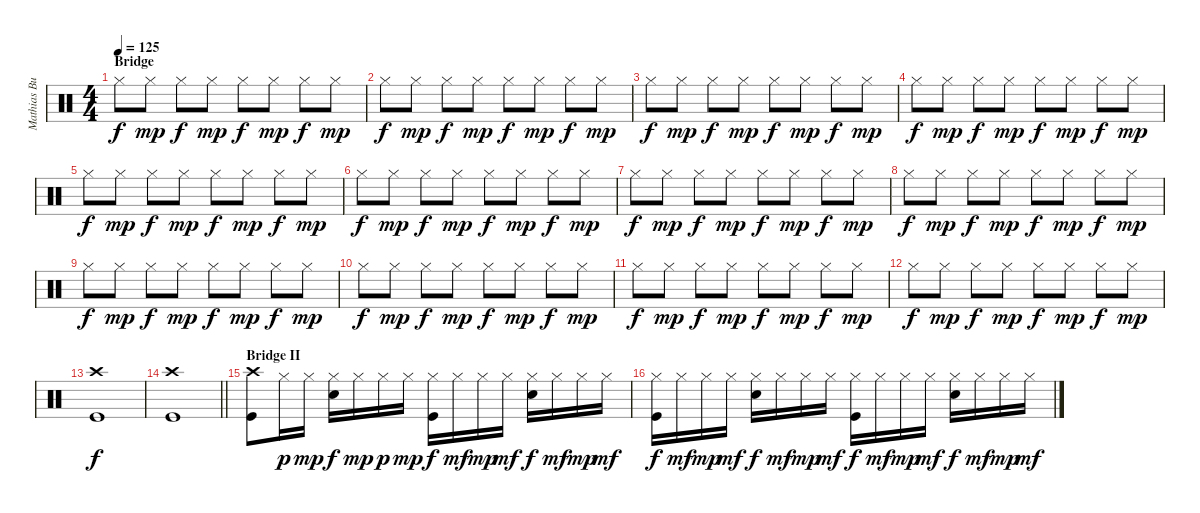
\track ("Mathias Burchardt" "Mathias Bu") {instrument percussion}
\staff {score}
\articulation defaults
\ts (4 4)
\section ("" "Bridge")
\tempo 125
\clef neutral
\ks c "Hi-Hat (closed)".8{dy f} "Hi-Hat (closed)".8{dy mp} "Hi-Hat (closed)".8{dy f} "Hi-Hat (closed)".8{dy mp} "Hi-Hat (closed)".8{dy f} "Hi-Hat (closed)".8{dy mp} "Hi-Hat (closed)".8{dy f} "Hi-Hat (closed)".8{dy mp}
|
"Hi-Hat (closed)".8{dy f} "Hi-Hat (closed)".8{dy mp} "Hi-Hat (closed)".8{dy f} "Hi-Hat (closed)".8{dy mp} "Hi-Hat (closed)".8{dy f} "Hi-Hat (closed)".8{dy mp} "Hi-Hat (closed)".8{dy f} "Hi-Hat (closed)".8{dy mp} |
"Hi-Hat (closed)".8{dy f} "Hi-Hat (closed)".8{dy mp} "Hi-Hat (closed)".8{dy f} "Hi-Hat (closed)".8{dy mp} "Hi-Hat (closed)".8{dy f} "Hi-Hat (closed)".8{dy mp} "Hi-Hat (closed)".8{dy f} "Hi-Hat (closed)".8{dy mp} |
"Hi-Hat (closed)".8{dy f} "Hi-Hat (closed)".8{dy mp} "Hi-Hat (closed)".8{dy f} "Hi-Hat (closed)".8{dy mp} "Hi-Hat (closed)".8{dy f} "Hi-Hat (closed)".8{dy mp} "Hi-Hat (closed)".8{dy f} "Hi-Hat (closed)".8{dy mp} |
"Hi-Hat (closed)".8{dy f} "Hi-Hat (closed)".8{dy mp} "Hi-Hat (closed)".8{dy f} "Hi-Hat (closed)".8{dy mp} "Hi-Hat (closed)".8{dy f} "Hi-Hat (closed)".8{dy mp} "Hi-Hat (closed)".8{dy f} "Hi-Hat (closed)".8{dy mp} |
"Hi-Hat (closed)".8{dy f} "Hi-Hat (closed)".8{dy mp} "Hi-Hat (closed)".8{dy f} "Hi-Hat (closed)".8{dy mp} "Hi-Hat (closed)".8{dy f} "Hi-Hat (closed)".8{dy mp} "Hi-Hat (closed)".8{dy f} "Hi-Hat (closed)".8{dy mp} |
"Hi-Hat (closed)".8{dy f} "Hi-Hat (closed)".8{dy mp} "Hi-Hat (closed)".8{dy f} "Hi-Hat (closed)".8{dy mp} "Hi-Hat (closed)".8{dy f} "Hi-Hat (closed)".8{dy mp} "Hi-Hat (closed)".8{dy f} "Hi-Hat (closed)".8{dy mp} |
"Hi-Hat (closed)".8{dy f} "Hi-Hat (closed)".8{dy mp} "Hi-Hat (closed)".8{dy f} "Hi-Hat (closed)".8{dy mp} "Hi-Hat (closed)".8{dy f} "Hi-Hat (closed)".8{dy mp} "Hi-Hat (closed)".8{dy f} "Hi-Hat (closed)".8{dy mp} |
"Hi-Hat (closed)".8{dy f} "Hi-Hat (closed)".8{dy mp} "Hi-Hat (closed)".8{dy f} "Hi-Hat (closed)".8{dy mp} "Hi-Hat (closed)".8{dy f} "Hi-Hat (closed)".8{dy mp} "Hi-Hat (closed)".8{dy f} "Hi-Hat (closed)".8{dy mp} |
"Hi-Hat (closed)".8{dy f} "Hi-Hat (closed)".8{dy mp} "Hi-Hat (closed)".8{dy f} "Hi-Hat (closed)".8{dy mp} "Hi-Hat (closed)".8{dy f} "Hi-Hat (closed)".8{dy mp} "Hi-Hat (closed)".8{dy f} "Hi-Hat (closed)".8{dy mp} |
"Hi-Hat (closed)".8{dy f} "Hi-Hat (closed)".8{dy mp} "Hi-Hat (closed)".8{dy f} "Hi-Hat (closed)".8{dy mp} "Hi-Hat (closed)".8{dy f} "Hi-Hat (closed)".8{dy mp} "Hi-Hat (closed)".8{dy f} "Hi-Hat (closed)".8{dy mp} |
"Hi-Hat (closed)".8{dy f} "Hi-Hat (closed)".8{dy mp} "Hi-Hat (closed)".8{dy f} "Hi-Hat (closed)".8{dy mp} "Hi-Hat (closed)".8{dy f} "Hi-Hat (closed)".8{dy mp} "Hi-Hat (closed)".8{dy f} "Hi-Hat (closed)".8{dy mp} |
("Crash high (hit)" "Kick (hit)").1{dy f} |
\barLineRight lightlight
("Crash high (hit)" "Kick (hit)").1 |
\section ("" "Bridge II")
("Crash high (hit)" "Kick (hit)").8 "Hi-Hat (closed)".16{dy p} "Hi-Hat (closed)".16{dy mp} ("Hi-Hat (closed)" "Snare (hit) 2").16{dy f} "Hi-Hat (closed)".16{dy mp} "Hi-Hat (closed)".16{dy p} "Hi-Hat (closed)".16{dy mp} ("Hi-Hat (closed)" "Kick (hit)").16{dy f} "Hi-Hat (closed)".16{dy mf} "Hi-Hat (closed)".16{dy mp} "Hi-Hat (closed)".16{dy mf} ("Hi-Hat (closed)" "Snare (hit) 2").16{dy f} "Hi-Hat (closed)".16{dy mf} "Hi-Hat (closed)".16{dy mp} "Hi-Hat (closed)".16{dy mf} |
("Hi-Hat (closed)" "Kick (hit)").16{dy f} "Hi-Hat (closed)".16{dy mf} "Hi-Hat (closed)".16{dy mp} "Hi-Hat (closed)".16{dy mf} ("Hi-Hat (closed)" "Snare (hit) 2").16{dy f} "Hi-Hat (closed)".16{dy mf} "Hi-Hat (closed)".16{dy mp} "Hi-Hat (closed)".16{dy mf} ("Hi-Hat (closed)" "Kick (hit)").16{dy f} "Hi-Hat (closed)".16{dy mf} "Hi-Hat (closed)".16{dy mp} "Hi-Hat (closed)".16{dy mf} ("Hi-Hat (closed)" "Snare (hit) 2").16{dy f} "Hi-Hat (closed)".16{dy mf} "Hi-Hat (closed)".16{dy mp} "Hi-Hat (closed)".16{dy mf}
